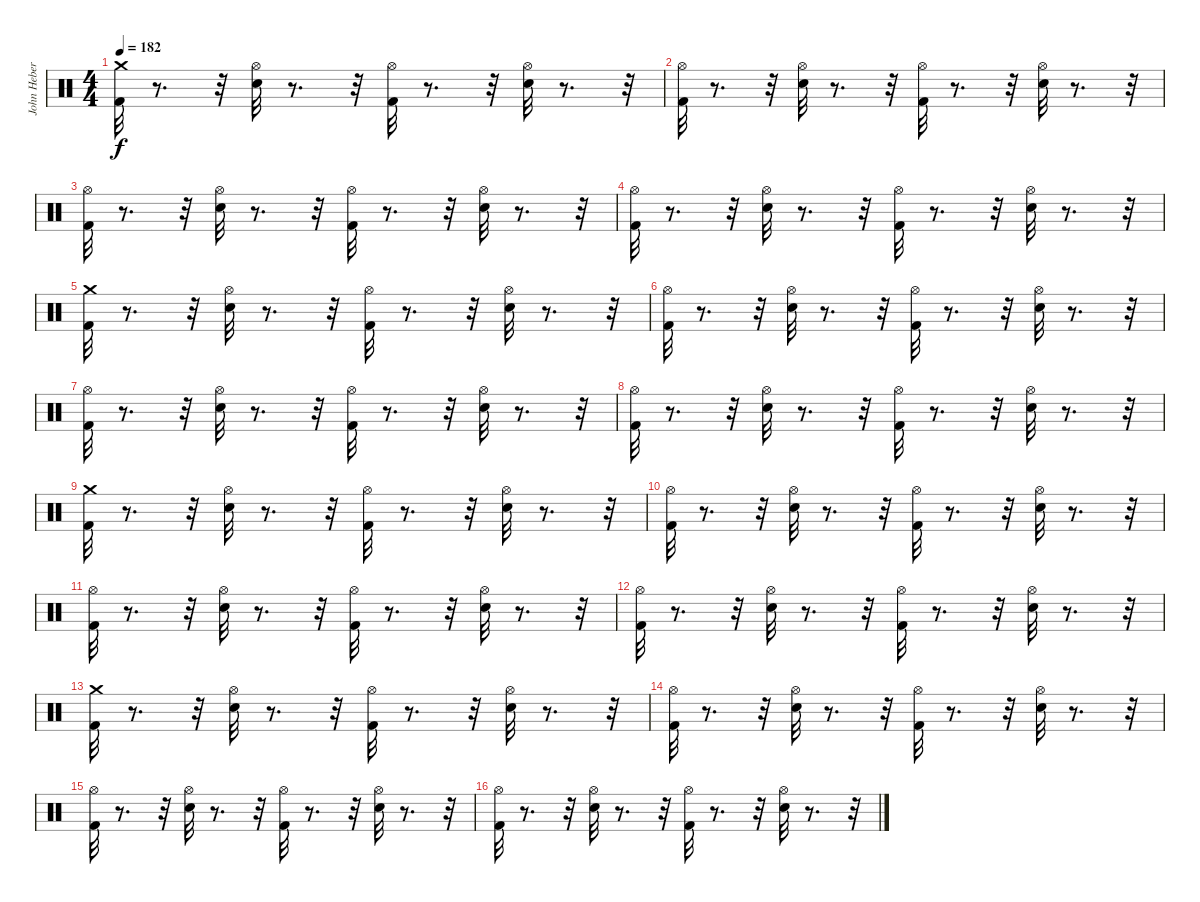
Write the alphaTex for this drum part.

\track ("John Hebert" "John Heber") {instrument percussion}
\staff {score}
\articulation defaults
\ts (4 4)
\tempo 182
\clef neutral
\ks c
("Kick (hit) 2" "Crash medium (hit)").32{dy f} r.8{d} r.32 ("Hi-Hat (open)" "Snare (hit) 2").32 r.8{d} r.32 ("Hi-Hat (open)" "Kick (hit) 2").32 r.8{d} r.32 ("Hi-Hat (open)" "Snare (hit) 2").32 r.8{d} r.32 |
("Hi-Hat (open)" "Kick (hit) 2").32 r.8{d} r.32 ("Snare (hit) 2" "Hi-Hat (open)").32 r.8{d} r.32 ("Kick (hit) 2" "Hi-Hat (open)").32 r.8{d} r.32 ("Snare (hit) 2" "Hi-Hat (open)").32 r.8{d} r.32 |
("Hi-Hat (open)" "Kick (hit) 2").32 r.8{d} r.32 ("Snare (hit) 2" "Hi-Hat (open)").32 r.8{d} r.32 ("Kick (hit) 2" "Hi-Hat (open)").32 r.8{d} r.32 ("Snare (hit) 2" "Hi-Hat (open)").32 r.8{d} r.32 |
("Hi-Hat (open)" "Kick (hit) 2").32 r.8{d} r.32 ("Snare (hit) 2" "Hi-Hat (open)").32 r.8{d} r.32 ("Kick (hit) 2" "Hi-Hat (open)").32 r.8{d} r.32 ("Snare (hit) 2" "Hi-Hat (open)").32 r.8{d} r.32 |
("Kick (hit) 2" "Crash medium (hit)").32 r.8{d} r.32 ("Hi-Hat (open)" "Snare (hit) 2").32 r.8{d} r.32 ("Hi-Hat (open)" "Kick (hit) 2").32 r.8{d} r.32 ("Hi-Hat (open)" "Snare (hit) 2").32 r.8{d} r.32 |
("Hi-Hat (open)" "Kick (hit) 2").32 r.8{d} r.32 ("Snare (hit) 2" "Hi-Hat (open)").32 r.8{d} r.32 ("Kick (hit) 2" "Hi-Hat (open)").32 r.8{d} r.32 ("Snare (hit) 2" "Hi-Hat (open)").32 r.8{d} r.32 |
("Hi-Hat (open)" "Kick (hit) 2").32 r.8{d} r.32 ("Snare (hit) 2" "Hi-Hat (open)").32 r.8{d} r.32 ("Kick (hit) 2" "Hi-Hat (open)").32 r.8{d} r.32 ("Snare (hit) 2" "Hi-Hat (open)").32 r.8{d} r.32 |
("Hi-Hat (open)" "Kick (hit) 2").32 r.8{d} r.32 ("Snare (hit) 2" "Hi-Hat (open)").32 r.8{d} r.32 ("Kick (hit) 2" "Hi-Hat (open)").32 r.8{d} r.32 ("Snare (hit) 2" "Hi-Hat (open)").32 r.8{d} r.32 |
("Crash medium (hit)" "Kick (hit) 2").32 r.8{d} r.32 ("Hi-Hat (open)" "Snare (hit) 2").32 r.8{d} r.32 ("Hi-Hat (open)" "Kick (hit) 2").32 r.8{d} r.32 ("Hi-Hat (open)" "Snare (hit) 2").32 r.8{d} r.32 |
("Hi-Hat (open)" "Kick (hit) 2").32 r.8{d} r.32 ("Hi-Hat (open)" "Snare (hit) 2").32 r.8{d} r.32 ("Hi-Hat (open)" "Kick (hit) 2").32 r.8{d} r.32 ("Hi-Hat (open)" "Snare (hit) 2").32 r.8{d} r.32 |
("Hi-Hat (open)" "Kick (hit) 2").32 r.8{d} r.32 ("Hi-Hat (open)" "Snare (hit) 2").32 r.8{d} r.32 ("Hi-Hat (open)" "Kick (hit) 2").32 r.8{d} r.32 ("Hi-Hat (open)" "Snare (hit) 2").32 r.8{d} r.32 |
("Hi-Hat (open)" "Kick (hit) 2").32 r.8{d} r.32 ("Hi-Hat (open)" "Snare (hit) 2").32 r.8{d} r.32 ("Hi-Hat (open)" "Kick (hit) 2").32 r.8{d} r.32 ("Hi-Hat (open)" "Snare (hit) 2").32 r.8{d} r.32 |
("Crash medium (hit)" "Kick (hit) 2").32 r.8{d} r.32 ("Hi-Hat (open)" "Snare (hit) 2").32 r.8{d} r.32 ("Hi-Hat (open)" "Kick (hit) 2").32 r.8{d} r.32 ("Hi-Hat (open)" "Snare (hit) 2").32 r.8{d} r.32 |
("Hi-Hat (open)" "Kick (hit) 2").32 r.8{d} r.32 ("Hi-Hat (open)" "Snare (hit) 2").32 r.8{d} r.32 ("Hi-Hat (open)" "Kick (hit) 2").32 r.8{d} r.32 ("Hi-Hat (open)" "Snare (hit) 2").32 r.8{d} r.32 |
("Hi-Hat (open)" "Kick (hit) 2").32 r.8{d} r.32 ("Hi-Hat (open)" "Snare (hit) 2").32 r.8{d} r.32 ("Hi-Hat (open)" "Kick (hit) 2").32 r.8{d} r.32 ("Hi-Hat (open)" "Snare (hit) 2").32 r.8{d} r.32 |
("Hi-Hat (open)" "Kick (hit) 2").32 r.8{d} r.32 ("Hi-Hat (open)" "Snare (hit) 2").32 r.8{d} r.32 ("Hi-Hat (open)" "Kick (hit) 2").32 r.8{d} r.32 ("Hi-Hat (open)" "Snare (hit) 2").32 r.8{d} r.32
